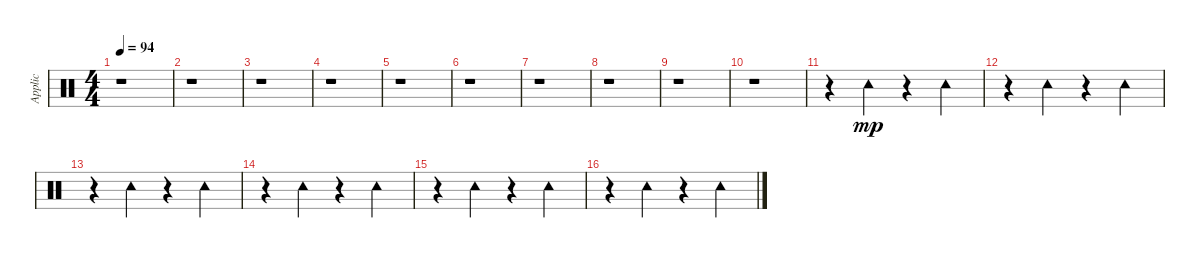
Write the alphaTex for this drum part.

\track ("Applic" "Applic") {instrument percussion}
\staff {score}
\articulation defaults
\ts (4 4)
\tempo 94
\clef neutral
\ks c
r.1{dy mp} |
r.1 |
r.1 |
r.1 |
r.1 |
r.1 |
r.1 |
r.1 |
r.1 |
r.1 |
r.4 "Tambourine (hit)".4 r.4 "Tambourine (hit)".4 |
r.4 "Tambourine (hit)".4 r.4 "Tambourine (hit)".4 |
r.4 "Tambourine (hit)".4 r.4 "Tambourine (hit)".4 |
r.4 "Tambourine (hit)".4 r.4 "Tambourine (hit)".4 |
r.4 "Tambourine (hit)".4 r.4 "Tambourine (hit)".4 |
r.4 "Tambourine (hit)".4 r.4 "Tambourine (hit)".4
